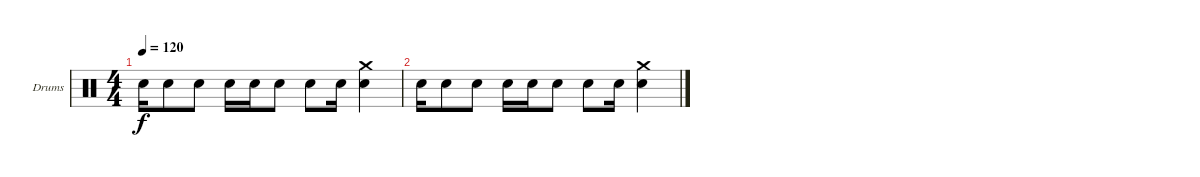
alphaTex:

\bracketExtendMode groupsimilarinstruments
\firstSystemTrackNameOrientation horizontal
\otherSystemsTrackNameOrientation horizontal
\track ("Drumkit" "Drums") {instrument percussion}
\staff {score}
\articulation defaults
\ts (4 4)
\tempo 120
\clef neutral
\ks c "Snare (hit) 2".16{dy f} "Snare (hit) 2".8 "Snare (hit) 2".8 "Snare (hit) 2".16 "Snare (hit) 2".16 "Snare (hit) 2".8 "Snare (hit) 2".8 "Snare (hit) 2".16
("Crash medium (hit)" "Snare (hit) 2").4 |
"Snare (hit) 2".16 "Snare (hit) 2".8 "Snare (hit) 2".8 "Snare (hit) 2".16 "Snare (hit) 2".16 "Snare (hit) 2".8 "Snare (hit) 2".8 "Snare (hit) 2".16 ("Crash medium (hit)" "Snare (hit) 2").4
